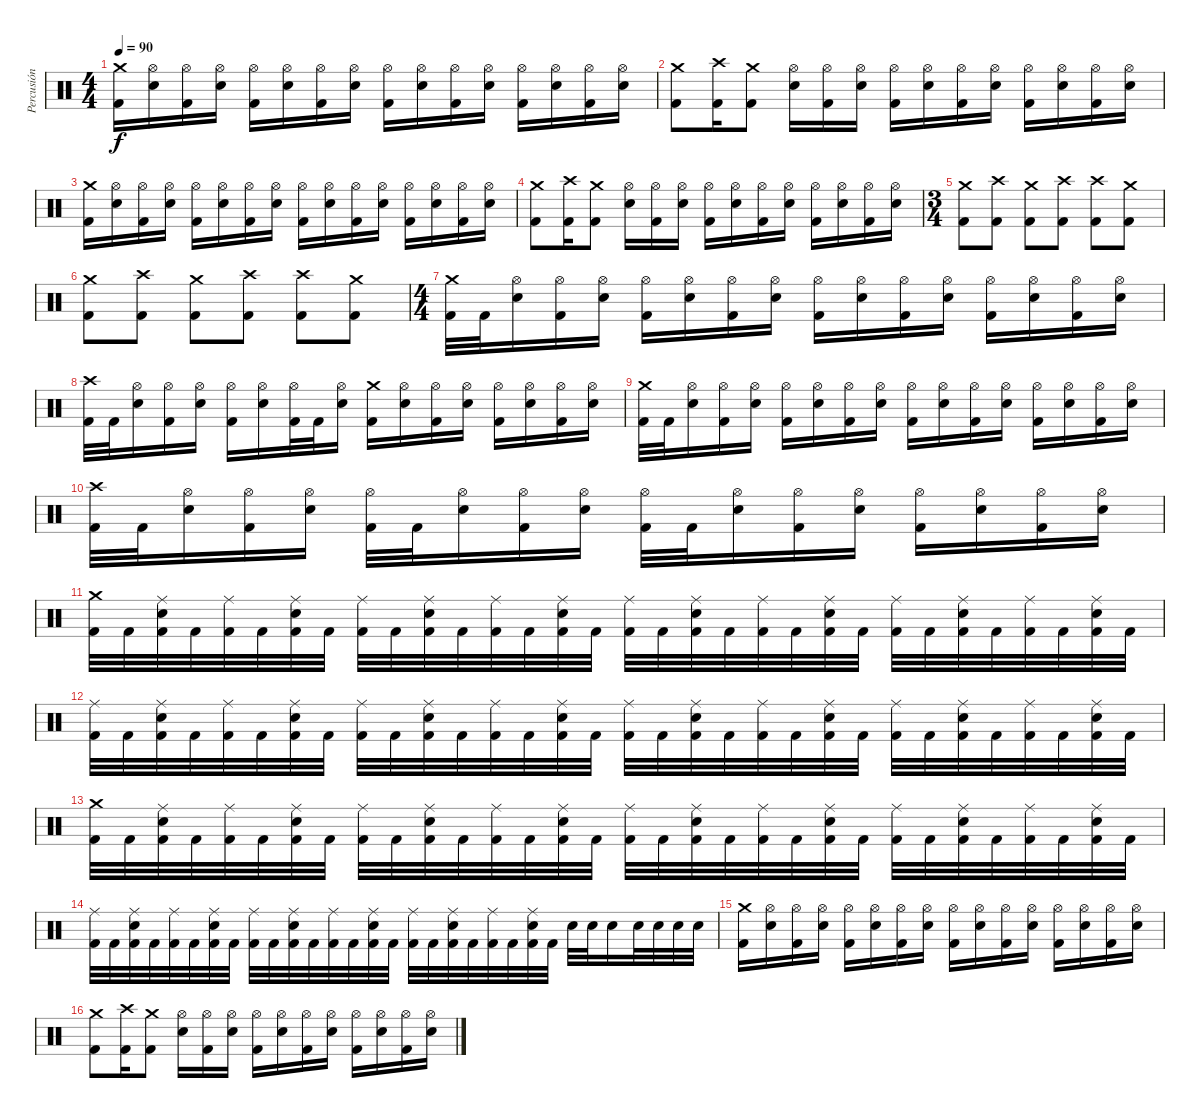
\track ("Percusión" "Percusión") {instrument percussion}
\staff {score}
\articulation defaults
\ts (4 4)
\tempo 90
\clef neutral
\ks c
("Crash medium (hit)" "Kick (hit) 2").16{dy f} ("Hi-Hat (open)" "Snare (hit) 2").16 ("Hi-Hat (open)" "Kick (hit) 2").16 ("Hi-Hat (open)" "Snare (hit) 2").16 ("Hi-Hat (open)" "Kick (hit) 2").16 ("Hi-Hat (open)" "Snare (hit) 2").16 ("Hi-Hat (open)" "Kick (hit) 2").16 ("Hi-Hat (open)" "Snare (hit) 2").16 ("Hi-Hat (open)" "Kick (hit) 2").16 ("Hi-Hat (open)" "Snare (hit) 2").16 ("Hi-Hat (open)" "Kick (hit) 2").16 ("Hi-Hat (open)" "Snare (hit) 2").16 ("Hi-Hat (open)" "Kick (hit) 2").16 ("Hi-Hat (open)" "Snare (hit) 2").16 ("Hi-Hat (open)" "Kick (hit) 2").16 ("Hi-Hat (open)" "Snare (hit) 2").16 |
("Crash medium (hit)" "Kick (hit) 2").8 ("Crash high (hit)" "Kick (hit) 2").16 ("Crash medium (hit)" "Kick (hit) 2").8 ("Hi-Hat (open)" "Snare (hit) 2").16 ("Hi-Hat (open)" "Kick (hit) 2").16 ("Hi-Hat (open)" "Snare (hit) 2").16 ("Hi-Hat (open)" "Kick (hit) 2").16 ("Hi-Hat (open)" "Snare (hit) 2").16 ("Hi-Hat (open)" "Kick (hit) 2").16 ("Hi-Hat (open)" "Snare (hit) 2").16 ("Hi-Hat (open)" "Kick (hit) 2").16 ("Hi-Hat (open)" "Snare (hit) 2").16 ("Hi-Hat (open)" "Kick (hit) 2").16 ("Hi-Hat (open)" "Snare (hit) 2").16 |
("Crash medium (hit)" "Kick (hit) 2").16 ("Hi-Hat (open)" "Snare (hit) 2").16 ("Hi-Hat (open)" "Kick (hit) 2").16 ("Hi-Hat (open)" "Snare (hit) 2").16 ("Hi-Hat (open)" "Kick (hit) 2").16 ("Hi-Hat (open)" "Snare (hit) 2").16 ("Hi-Hat (open)" "Kick (hit) 2").16 ("Hi-Hat (open)" "Snare (hit) 2").16 ("Hi-Hat (open)" "Kick (hit) 2").16 ("Hi-Hat (open)" "Snare (hit) 2").16 ("Hi-Hat (open)" "Kick (hit) 2").16 ("Hi-Hat (open)" "Snare (hit) 2").16 ("Hi-Hat (open)" "Kick (hit) 2").16 ("Hi-Hat (open)" "Snare (hit) 2").16 ("Hi-Hat (open)" "Kick (hit) 2").16 ("Hi-Hat (open)" "Snare (hit) 2").16 |
("Crash medium (hit)" "Kick (hit) 2").8 ("Crash high (hit)" "Kick (hit) 2").16 ("Crash medium (hit)" "Kick (hit) 2").8 ("Hi-Hat (open)" "Snare (hit) 2").16 ("Hi-Hat (open)" "Kick (hit) 2").16 ("Hi-Hat (open)" "Snare (hit) 2").16 ("Hi-Hat (open)" "Kick (hit) 2").16 ("Hi-Hat (open)" "Snare (hit) 2").16 ("Hi-Hat (open)" "Kick (hit) 2").16 ("Hi-Hat (open)" "Snare (hit) 2").16 ("Hi-Hat (open)" "Kick (hit) 2").16 ("Hi-Hat (open)" "Snare (hit) 2").16 ("Hi-Hat (open)" "Kick (hit) 2").16 ("Hi-Hat (open)" "Snare (hit) 2").16 |
\ts (3 4)
("Crash medium (hit)" "Kick (hit) 2").8 ("Crash high (hit)" "Kick (hit) 2").8 ("Crash medium (hit)" "Kick (hit) 2").8 ("Crash high (hit)" "Kick (hit) 2").8 ("Crash high (hit)" "Kick (hit) 2").8 ("Crash medium (hit)" "Kick (hit) 2").8 |
("Crash medium (hit)" "Kick (hit) 2").8 ("Crash high (hit)" "Kick (hit) 2").8 ("Crash medium (hit)" "Kick (hit) 2").8 ("Crash high (hit)" "Kick (hit) 2").8 ("Crash high (hit)" "Kick (hit) 2").8 ("Crash medium (hit)" "Kick (hit) 2").8 |
\ts (4 4)
("Crash medium (hit)" "Kick (hit) 2").32 "Kick (hit) 2".32 ("Hi-Hat (open)" "Snare (hit) 2").16 ("Hi-Hat (open)" "Kick (hit) 2").16 ("Hi-Hat (open)" "Snare (hit) 2").16 ("Hi-Hat (open)" "Kick (hit) 2").16 ("Hi-Hat (open)" "Snare (hit) 2").16 ("Hi-Hat (open)" "Kick (hit) 2").16 ("Hi-Hat (open)" "Snare (hit) 2").16 ("Hi-Hat (open)" "Kick (hit) 2").16 ("Hi-Hat (open)" "Snare (hit) 2").16 ("Hi-Hat (open)" "Kick (hit) 2").16 ("Hi-Hat (open)" "Snare (hit) 2").16 ("Hi-Hat (open)" "Kick (hit) 2").16 ("Hi-Hat (open)" "Snare (hit) 2").16 ("Hi-Hat (open)" "Kick (hit) 2").16 ("Hi-Hat (open)" "Snare (hit) 2").16 |
("Crash high (hit)" "Kick (hit) 2").32 "Kick (hit) 2".32 ("Hi-Hat (open)" "Snare (hit) 2").16 ("Hi-Hat (open)" "Kick (hit) 2").16 ("Hi-Hat (open)" "Snare (hit) 2").16 ("Hi-Hat (open)" "Kick (hit) 2").16 ("Hi-Hat (open)" "Snare (hit) 2").16 ("Hi-Hat (open)" "Kick (hit) 2").32 "Kick (hit) 2".32 ("Hi-Hat (open)" "Snare (hit) 2").16 ("Crash medium (hit)" "Kick (hit) 2").16 ("Hi-Hat (open)" "Snare (hit) 2").16 ("Hi-Hat (open)" "Kick (hit) 2").16 ("Hi-Hat (open)" "Snare (hit) 2").16 ("Hi-Hat (open)" "Kick (hit) 2").16 ("Hi-Hat (open)" "Snare (hit) 2").16 ("Hi-Hat (open)" "Kick (hit) 2").16 ("Hi-Hat (open)" "Snare (hit) 2").16 |
("Crash medium (hit)" "Kick (hit) 2").32 "Kick (hit) 2".32 ("Hi-Hat (open)" "Snare (hit) 2").16 ("Hi-Hat (open)" "Kick (hit) 2").16 ("Hi-Hat (open)" "Snare (hit) 2").16 ("Hi-Hat (open)" "Kick (hit) 2").16 ("Hi-Hat (open)" "Snare (hit) 2").16 ("Hi-Hat (open)" "Kick (hit) 2").16 ("Hi-Hat (open)" "Snare (hit) 2").16 ("Hi-Hat (open)" "Kick (hit) 2").16 ("Hi-Hat (open)" "Snare (hit) 2").16 ("Hi-Hat (open)" "Kick (hit) 2").16 ("Hi-Hat (open)" "Snare (hit) 2").16 ("Hi-Hat (open)" "Kick (hit) 2").16 ("Hi-Hat (open)" "Snare (hit) 2").16 ("Hi-Hat (open)" "Kick (hit) 2").16 ("Hi-Hat (open)" "Snare (hit) 2").16 |
("Crash high (hit)" "Kick (hit) 2").32 "Kick (hit) 2".32 ("Hi-Hat (open)" "Snare (hit) 2").16 ("Hi-Hat (open)" "Kick (hit) 2").16 ("Hi-Hat (open)" "Snare (hit) 2").16 ("Hi-Hat (open)" "Kick (hit) 2").32 "Kick (hit) 2".32 ("Hi-Hat (open)" "Snare (hit) 2").16 ("Hi-Hat (open)" "Kick (hit) 2").16 ("Hi-Hat (open)" "Snare (hit) 2").16 ("Hi-Hat (open)" "Kick (hit) 2").32 "Kick (hit) 2".32 ("Hi-Hat (open)" "Snare (hit) 2").16 ("Hi-Hat (open)" "Kick (hit) 2").16 ("Hi-Hat (open)" "Snare (hit) 2").16 ("Hi-Hat (open)" "Kick (hit) 2").16 ("Hi-Hat (open)" "Snare (hit) 2").16 ("Hi-Hat (open)" "Kick (hit) 2").16 ("Hi-Hat (open)" "Snare (hit) 2").16 |
("Crash medium (hit)" "Kick (hit) 2").32 "Kick (hit) 2".32 ("Ride (middle)" "Snare (hit) 2" "Kick (hit) 2").32 "Kick (hit) 2".32 ("Ride (middle)" "Kick (hit) 2").32 "Kick (hit) 2".32 ("Ride (middle)" "Snare (hit) 2" "Kick (hit) 2").32 "Kick (hit) 2".32 ("Ride (middle)" "Kick (hit) 2").32 "Kick (hit) 2".32 ("Ride (middle)" "Snare (hit) 2" "Kick (hit) 2").32 "Kick (hit) 2".32 ("Ride (middle)" "Kick (hit) 2").32 "Kick (hit) 2".32 ("Ride (middle)" "Snare (hit) 2" "Kick (hit) 2").32 "Kick (hit) 2".32 ("Ride (middle)" "Kick (hit) 2").32 "Kick (hit) 2".32 ("Ride (middle)" "Snare (hit) 2" "Kick (hit) 2").32 "Kick (hit) 2".32 ("Ride (middle)" "Kick (hit) 2").32 "Kick (hit) 2".32 ("Ride (middle)" "Snare (hit) 2" "Kick (hit) 2").32 "Kick (hit) 2".32 ("Ride (middle)" "Kick (hit) 2").32 "Kick (hit) 2".32 ("Ride (middle)" "Snare (hit) 2" "Kick (hit) 2").32 "Kick (hit) 2".32 ("Ride (middle)" "Kick (hit) 2").32 "Kick (hit) 2".32 ("Ride (middle)" "Snare (hit) 2" "Kick (hit) 2").32 "Kick (hit) 2".32 |
("Ride (middle)" "Kick (hit) 2").32 "Kick (hit) 2".32 ("Ride (middle)" "Snare (hit) 2" "Kick (hit) 2").32 "Kick (hit) 2".32 ("Ride (middle)" "Kick (hit) 2").32 "Kick (hit) 2".32 ("Ride (middle)" "Snare (hit) 2" "Kick (hit) 2").32 "Kick (hit) 2".32 ("Ride (middle)" "Kick (hit) 2").32 "Kick (hit) 2".32 ("Ride (middle)" "Snare (hit) 2" "Kick (hit) 2").32 "Kick (hit) 2".32 ("Ride (middle)" "Kick (hit) 2").32 "Kick (hit) 2".32 ("Ride (middle)" "Snare (hit) 2" "Kick (hit) 2").32 "Kick (hit) 2".32 ("Ride (middle)" "Kick (hit) 2").32 "Kick (hit) 2".32 ("Ride (middle)" "Snare (hit) 2" "Kick (hit) 2").32 "Kick (hit) 2".32 ("Ride (middle)" "Kick (hit) 2").32 "Kick (hit) 2".32 ("Ride (middle)" "Snare (hit) 2" "Kick (hit) 2").32 "Kick (hit) 2".32 ("Ride (middle)" "Kick (hit) 2").32 "Kick (hit) 2".32 ("Ride (middle)" "Snare (hit) 2" "Kick (hit) 2").32 "Kick (hit) 2".32 ("Ride (middle)" "Kick (hit) 2").32 "Kick (hit) 2".32 ("Ride (middle)" "Snare (hit) 2" "Kick (hit) 2").32 "Kick (hit) 2".32 |
("Crash medium (hit)" "Kick (hit) 2").32 "Kick (hit) 2".32 ("Ride (middle)" "Snare (hit) 2" "Kick (hit) 2").32 "Kick (hit) 2".32 ("Ride (middle)" "Kick (hit) 2").32 "Kick (hit) 2".32 ("Ride (middle)" "Snare (hit) 2" "Kick (hit) 2").32 "Kick (hit) 2".32 ("Ride (middle)" "Kick (hit) 2").32 "Kick (hit) 2".32 ("Ride (middle)" "Snare (hit) 2" "Kick (hit) 2").32 "Kick (hit) 2".32 ("Ride (middle)" "Kick (hit) 2").32 "Kick (hit) 2".32 ("Ride (middle)" "Snare (hit) 2" "Kick (hit) 2").32 "Kick (hit) 2".32 ("Ride (middle)" "Kick (hit) 2").32 "Kick (hit) 2".32 ("Ride (middle)" "Snare (hit) 2" "Kick (hit) 2").32 "Kick (hit) 2".32 ("Ride (middle)" "Kick (hit) 2").32 "Kick (hit) 2".32 ("Ride (middle)" "Snare (hit) 2" "Kick (hit) 2").32 "Kick (hit) 2".32 ("Ride (middle)" "Kick (hit) 2").32 "Kick (hit) 2".32 ("Ride (middle)" "Snare (hit) 2" "Kick (hit) 2").32 "Kick (hit) 2".32 ("Ride (middle)" "Kick (hit) 2").32 "Kick (hit) 2".32 ("Ride (middle)" "Snare (hit) 2" "Kick (hit) 2").32 "Kick (hit) 2".32 |
("Ride (middle)" "Kick (hit) 2").32 "Kick (hit) 2".32 ("Ride (middle)" "Snare (hit) 2" "Kick (hit) 2").32 "Kick (hit) 2".32 ("Ride (middle)" "Kick (hit) 2").32 "Kick (hit) 2".32 ("Ride (middle)" "Snare (hit) 2" "Kick (hit) 2").32 "Kick (hit) 2".32 ("Ride (middle)" "Kick (hit) 2").32 "Kick (hit) 2".32 ("Ride (middle)" "Snare (hit) 2" "Kick (hit) 2").32 "Kick (hit) 2".32 ("Ride (middle)" "Kick (hit) 2").32 "Kick (hit) 2".32 ("Ride (middle)" "Snare (hit) 2" "Kick (hit) 2").32 "Kick (hit) 2".32 ("Ride (middle)" "Kick (hit) 2").32 "Kick (hit) 2".32 ("Ride (middle)" "Snare (hit) 2" "Kick (hit) 2").32 "Kick (hit) 2".32 ("Ride (middle)" "Kick (hit) 2").32 "Kick (hit) 2".32 ("Ride (middle)" "Snare (hit) 2" "Kick (hit) 2").32 "Kick (hit) 2".32 "Snare (hit) 2".32 "Snare (hit) 2".32 "Snare (hit) 2".16 "Snare (hit) 2".32 "Snare (hit) 2".32 "Snare (hit) 2".32 "Snare (hit) 2".32 |
("Crash medium (hit)" "Kick (hit) 2").16 ("Hi-Hat (open)" "Snare (hit) 2").16 ("Hi-Hat (open)" "Kick (hit) 2").16 ("Hi-Hat (open)" "Snare (hit) 2").16 ("Hi-Hat (open)" "Kick (hit) 2").16 ("Hi-Hat (open)" "Snare (hit) 2").16 ("Hi-Hat (open)" "Kick (hit) 2").16 ("Hi-Hat (open)" "Snare (hit) 2").16 ("Hi-Hat (open)" "Kick (hit) 2").16 ("Hi-Hat (open)" "Snare (hit) 2").16 ("Hi-Hat (open)" "Kick (hit) 2").16 ("Hi-Hat (open)" "Snare (hit) 2").16 ("Hi-Hat (open)" "Kick (hit) 2").16 ("Hi-Hat (open)" "Snare (hit) 2").16 ("Hi-Hat (open)" "Kick (hit) 2").16 ("Hi-Hat (open)" "Snare (hit) 2").16 |
("Crash medium (hit)" "Kick (hit) 2").8 ("Crash high (hit)" "Kick (hit) 2").16 ("Crash medium (hit)" "Kick (hit) 2").8 ("Hi-Hat (open)" "Snare (hit) 2").16 ("Hi-Hat (open)" "Kick (hit) 2").16 ("Hi-Hat (open)" "Snare (hit) 2").16 ("Hi-Hat (open)" "Kick (hit) 2").16 ("Hi-Hat (open)" "Snare (hit) 2").16 ("Hi-Hat (open)" "Kick (hit) 2").16 ("Hi-Hat (open)" "Snare (hit) 2").16 ("Hi-Hat (open)" "Kick (hit) 2").16 ("Hi-Hat (open)" "Snare (hit) 2").16 ("Hi-Hat (open)" "Kick (hit) 2").16 ("Hi-Hat (open)" "Snare (hit) 2").16
